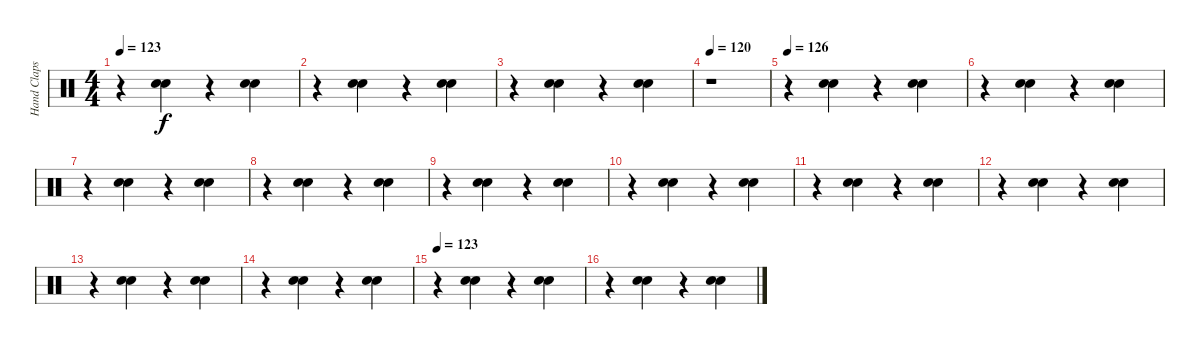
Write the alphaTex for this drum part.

\track ("Hand Claps" "Hand Claps") {instrument percussion}
\staff {score}
\articulation defaults
\ts (4 4)
\tempo 123
\clef neutral
\ks c
r.4{dy f} ("Hand Clap (hit)" "Hand Clap (hit)").4 r.4 ("Hand Clap (hit)" "Hand Clap (hit)").4 |
r.4 ("Hand Clap (hit)" "Hand Clap (hit)").4 r.4 ("Hand Clap (hit)" "Hand Clap (hit)").4 |
r.4 ("Hand Clap (hit)" "Hand Clap (hit)").4 r.4 ("Hand Clap (hit)" "Hand Clap (hit)").4 |
\tempo 120
r.1 |
\tempo 126
r.4 ("Hand Clap (hit)" "Hand Clap (hit)").4 r.4 ("Hand Clap (hit)" "Hand Clap (hit)").4 |
r.4 ("Hand Clap (hit)" "Hand Clap (hit)").4 r.4 ("Hand Clap (hit)" "Hand Clap (hit)").4 |
r.4 ("Hand Clap (hit)" "Hand Clap (hit)").4 r.4 ("Hand Clap (hit)" "Hand Clap (hit)").4 |
r.4 ("Hand Clap (hit)" "Hand Clap (hit)").4 r.4 ("Hand Clap (hit)" "Hand Clap (hit)").4 |
r.4 ("Hand Clap (hit)" "Hand Clap (hit)").4 r.4 ("Hand Clap (hit)" "Hand Clap (hit)").4 |
r.4 ("Hand Clap (hit)" "Hand Clap (hit)").4 r.4 ("Hand Clap (hit)" "Hand Clap (hit)").4 |
r.4 ("Hand Clap (hit)" "Hand Clap (hit)").4 r.4 ("Hand Clap (hit)" "Hand Clap (hit)").4 |
r.4 ("Hand Clap (hit)" "Hand Clap (hit)").4 r.4 ("Hand Clap (hit)" "Hand Clap (hit)").4 |
r.4 ("Hand Clap (hit)" "Hand Clap (hit)").4 r.4 ("Hand Clap (hit)" "Hand Clap (hit)").4 |
r.4 ("Hand Clap (hit)" "Hand Clap (hit)").4 r.4 ("Hand Clap (hit)" "Hand Clap (hit)").4 |
\tempo 123
r.4 ("Hand Clap (hit)" "Hand Clap (hit)").4 r.4 ("Hand Clap (hit)" "Hand Clap (hit)").4 |
r.4 ("Hand Clap (hit)" "Hand Clap (hit)").4 r.4 ("Hand Clap (hit)" "Hand Clap (hit)").4
